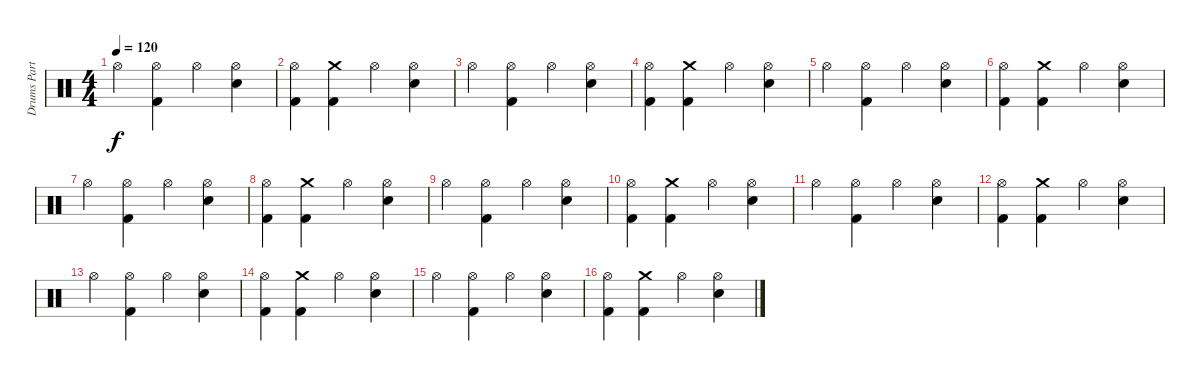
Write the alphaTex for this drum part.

\track ("Drums Part" "Drums Part") {instrument percussion}
\staff {score}
\articulation defaults
\ts (4 4)
\tempo 120
\clef neutral
\ks c "Hi-Hat (open)".4{dy f}
("Hi-Hat (open)" "Kick (hit) 2").4 "Hi-Hat (open)".4 ("Hi-Hat (open)" "Electric Snare (hit)").4 |
("Hi-Hat (open)" "Kick (hit) 2").4 ("Crash medium (hit)" "Kick (hit) 2").4 "Hi-Hat (open)".4 ("Hi-Hat (open)" "Electric Snare (hit)").4 |
"Hi-Hat (open)".4 ("Hi-Hat (open)" "Kick (hit) 2").4 "Hi-Hat (open)".4 ("Hi-Hat (open)" "Electric Snare (hit)").4 |
("Hi-Hat (open)" "Kick (hit) 2").4 ("Crash medium (hit)" "Kick (hit) 2").4 "Hi-Hat (open)".4 ("Hi-Hat (open)" "Electric Snare (hit)").4 |
"Hi-Hat (open)".4 ("Hi-Hat (open)" "Kick (hit) 2").4 "Hi-Hat (open)".4 ("Hi-Hat (open)" "Electric Snare (hit)").4 |
("Hi-Hat (open)" "Kick (hit) 2").4 ("Crash medium (hit)" "Kick (hit) 2").4 "Hi-Hat (open)".4 ("Hi-Hat (open)" "Electric Snare (hit)").4 |
"Hi-Hat (open)".4 ("Hi-Hat (open)" "Kick (hit) 2").4 "Hi-Hat (open)".4 ("Hi-Hat (open)" "Electric Snare (hit)").4 |
("Hi-Hat (open)" "Kick (hit) 2").4 ("Crash medium (hit)" "Kick (hit) 2").4 "Hi-Hat (open)".4 ("Hi-Hat (open)" "Electric Snare (hit)").4 |
"Hi-Hat (open)".4 ("Hi-Hat (open)" "Kick (hit) 2").4 "Hi-Hat (open)".4 ("Hi-Hat (open)" "Electric Snare (hit)").4 |
("Hi-Hat (open)" "Kick (hit) 2").4 ("Crash medium (hit)" "Kick (hit) 2").4 "Hi-Hat (open)".4 ("Hi-Hat (open)" "Electric Snare (hit)").4 |
"Hi-Hat (open)".4 ("Hi-Hat (open)" "Kick (hit) 2").4 "Hi-Hat (open)".4 ("Hi-Hat (open)" "Electric Snare (hit)").4 |
("Hi-Hat (open)" "Kick (hit) 2").4 ("Crash medium (hit)" "Kick (hit) 2").4 "Hi-Hat (open)".4 ("Hi-Hat (open)" "Electric Snare (hit)").4 |
"Hi-Hat (open)".4 ("Hi-Hat (open)" "Kick (hit) 2").4 "Hi-Hat (open)".4 ("Hi-Hat (open)" "Electric Snare (hit)").4 |
("Hi-Hat (open)" "Kick (hit) 2").4 ("Crash medium (hit)" "Kick (hit) 2").4 "Hi-Hat (open)".4 ("Hi-Hat (open)" "Electric Snare (hit)").4 |
"Hi-Hat (open)".4 ("Hi-Hat (open)" "Kick (hit) 2").4 "Hi-Hat (open)".4 ("Hi-Hat (open)" "Electric Snare (hit)").4 |
("Hi-Hat (open)" "Kick (hit) 2").4 ("Crash medium (hit)" "Kick (hit) 2").4 "Hi-Hat (open)".4 ("Hi-Hat (open)" "Electric Snare (hit)").4
